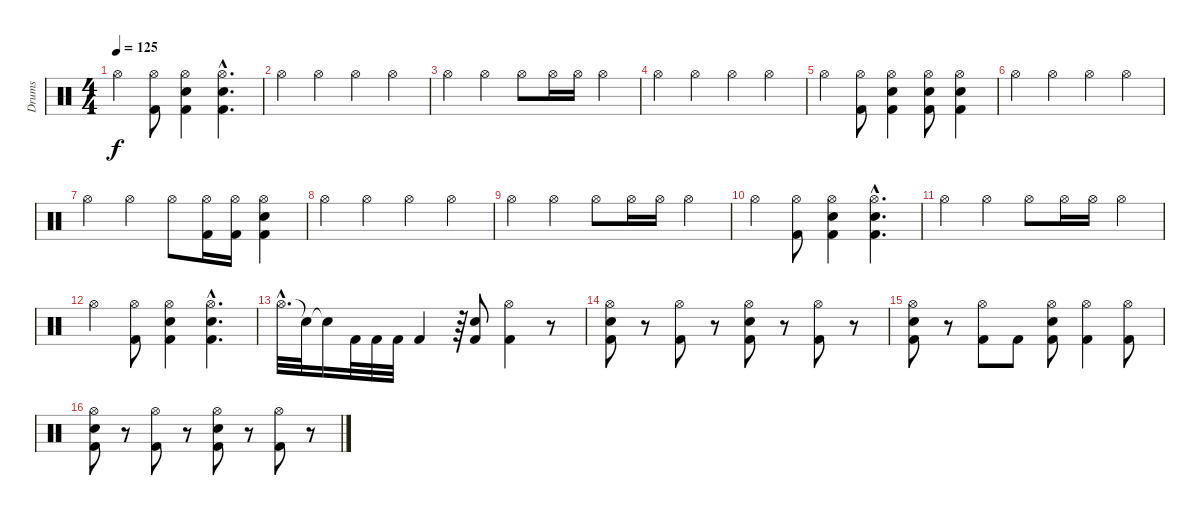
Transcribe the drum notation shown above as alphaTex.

\track ("Drums" "Drums") {instrument percussion}
\staff {score}
\articulation defaults
\ts (4 4)
\tempo 125
\clef neutral
\ks c "Hi-Hat (open)".4{dy f}
("Kick (hit) 2" "Hi-Hat (open)").8 ("Kick (hit) 2" "Snare (hit) 2" "Hi-Hat (open)").4 ("Kick (hit) 2"{hac} "Snare (hit) 2"{hac} "Hi-Hat (open)"{hac}).4{d} |
"Hi-Hat (open)".4 "Hi-Hat (open)".4 "Hi-Hat (open)".4 "Hi-Hat (open)".4 |
"Hi-Hat (open)".4 "Hi-Hat (open)".4 "Hi-Hat (open)".8 "Hi-Hat (open)".16 "Hi-Hat (open)".16 "Hi-Hat (open)".4 |
"Hi-Hat (open)".4 "Hi-Hat (open)".4 "Hi-Hat (open)".4 "Hi-Hat (open)".4 |
"Hi-Hat (open)".4 ("Kick (hit) 2" "Hi-Hat (open)").8 ("Kick (hit) 2" "Snare (hit) 2" "Hi-Hat (open)").4 ("Kick (hit) 2" "Snare (hit) 2" "Hi-Hat (open)").8 ("Kick (hit) 2" "Snare (hit) 2" "Hi-Hat (open)").4 |
"Hi-Hat (open)".4 "Hi-Hat (open)".4 "Hi-Hat (open)".4 "Hi-Hat (open)".4 |
"Hi-Hat (open)".4 "Hi-Hat (open)".4 "Hi-Hat (open)".8 ("Kick (hit) 2" "Hi-Hat (open)").16 ("Kick (hit) 2" "Hi-Hat (open)").16 ("Kick (hit) 2" "Snare (hit) 2" "Hi-Hat (open)").4 |
"Hi-Hat (open)".4 "Hi-Hat (open)".4 "Hi-Hat (open)".4 "Hi-Hat (open)".4 |
"Hi-Hat (open)".4 "Hi-Hat (open)".4 "Hi-Hat (open)".8 "Hi-Hat (open)".16 "Hi-Hat (open)".16 "Hi-Hat (open)".4 |
"Hi-Hat (open)".4 ("Kick (hit) 2" "Hi-Hat (open)").8 ("Kick (hit) 2" "Snare (hit) 2" "Hi-Hat (open)").4 ("Kick (hit) 2"{hac} "Snare (hit) 2"{hac} "Hi-Hat (open)"{hac}).4{d} |
"Hi-Hat (open)".4 "Hi-Hat (open)".4 "Hi-Hat (open)".8 "Hi-Hat (open)".16 "Hi-Hat (open)".16 "Hi-Hat (open)".4 |
"Hi-Hat (open)".4 ("Kick (hit) 2" "Hi-Hat (open)").8 ("Kick (hit) 2" "Snare (hit) 2" "Hi-Hat (open)").4 ("Kick (hit) 2"{hac} "Snare (hit) 2"{hac} "Hi-Hat (open)"{hac}).4{d} |
"Hi-Hat (open)"{hac}.32{d} "Snare (hit)"{t}.32 "Snare (hit)"{t}.16 "Kick (hit) 2".32 "Kick (hit) 2".32 "Kick (hit) 2".32 "Kick (hit) 2".4 r.64 ("Kick (hit) 2" "Snare (hit) 2").8 ("Kick (hit) 2" "Hi-Hat (open)").4 r.8 |
("Kick (hit) 2" "Snare (hit) 2" "Hi-Hat (open)").8 r.8 ("Kick (hit) 2" "Hi-Hat (open)").8 r.8 ("Kick (hit) 2" "Snare (hit) 2" "Hi-Hat (open)").8 r.8 ("Kick (hit) 2" "Hi-Hat (open)").8 r.8 |
("Kick (hit) 2" "Snare (hit) 2" "Hi-Hat (open)").8 r.8 ("Kick (hit) 2" "Hi-Hat (open)").8 "Kick (hit) 2".8 ("Kick (hit) 2" "Snare (hit) 2" "Hi-Hat (open)").8 ("Kick (hit) 2" "Hi-Hat (open)").4 ("Kick (hit) 2" "Hi-Hat (open)").8 |
("Kick (hit) 2" "Snare (hit) 2" "Hi-Hat (open)").8 r.8 ("Kick (hit) 2" "Hi-Hat (open)").8 r.8 ("Kick (hit) 2" "Snare (hit) 2" "Hi-Hat (open)").8 r.8 ("Kick (hit) 2" "Hi-Hat (open)").8 r.8
